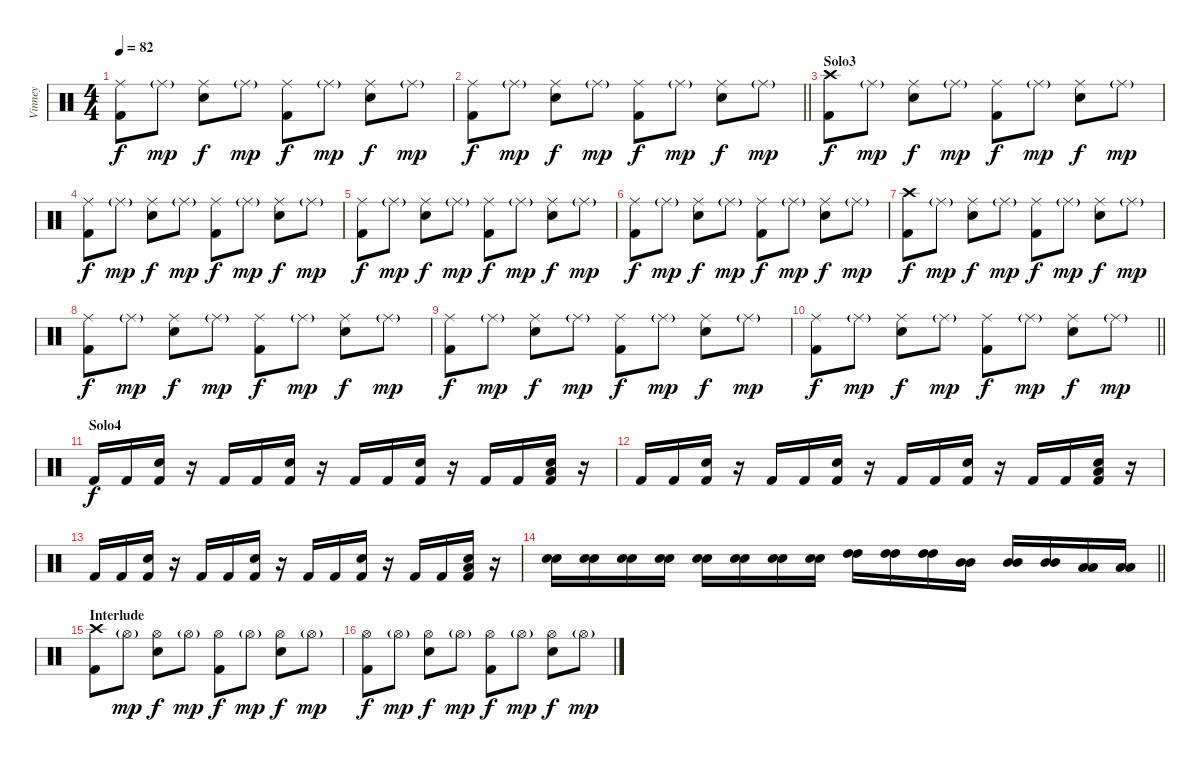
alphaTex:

\track ("Vinney" "Vinney") {instrument percussion}
\staff {score}
\articulation defaults
\ts (4 4)
\tempo 82
\clef neutral
\ks c
("Ride (middle)" "Kick (hit) 2").8{dy f} "Ride (middle)"{g}.8{dy mp} ("Ride (middle)" "Electric Snare (hit)").8{dy f} "Ride (middle)"{g}.8{dy mp} ("Ride (middle)" "Kick (hit) 2").8{dy f} "Ride (middle)"{g}.8{dy mp} ("Ride (middle)" "Electric Snare (hit)").8{dy f} "Ride (middle)"{g}.8{dy mp} |
\barLineRight lightlight
("Ride (middle)" "Kick (hit) 2").8{dy f} "Ride (middle)"{g}.8{dy mp} ("Ride (middle)" "Electric Snare (hit)").8{dy f} "Ride (middle)"{g}.8{dy mp} ("Ride (middle)" "Kick (hit) 2").8{dy f} "Ride (middle)"{g}.8{dy mp} ("Ride (middle)" "Electric Snare (hit)").8{dy f} "Ride (middle)"{g}.8{dy mp} |
\section ("" "Solo3")
("Crash high (hit)" "Kick (hit) 2").8{dy f} "Ride (middle)"{g}.8{dy mp} ("Ride (middle)" "Electric Snare (hit)").8{dy f} "Ride (middle)"{g}.8{dy mp} ("Ride (middle)" "Kick (hit) 2").8{dy f} "Ride (middle)"{g}.8{dy mp} ("Ride (middle)" "Electric Snare (hit)").8{dy f} "Ride (middle)"{g}.8{dy mp} |
("Ride (middle)" "Kick (hit) 2").8{dy f} "Ride (middle)"{g}.8{dy mp} ("Ride (middle)" "Electric Snare (hit)").8{dy f} "Ride (middle)"{g}.8{dy mp} ("Ride (middle)" "Kick (hit) 2").8{dy f} "Ride (middle)"{g}.8{dy mp} ("Ride (middle)" "Electric Snare (hit)").8{dy f} "Ride (middle)"{g}.8{dy mp} |
("Ride (middle)" "Kick (hit) 2").8{dy f} "Ride (middle)"{g}.8{dy mp} ("Ride (middle)" "Electric Snare (hit)").8{dy f} "Ride (middle)"{g}.8{dy mp} ("Ride (middle)" "Kick (hit) 2").8{dy f} "Ride (middle)"{g}.8{dy mp} ("Ride (middle)" "Electric Snare (hit)").8{dy f} "Ride (middle)"{g}.8{dy mp} |
("Ride (middle)" "Kick (hit) 2").8{dy f} "Ride (middle)"{g}.8{dy mp} ("Ride (middle)" "Electric Snare (hit)").8{dy f} "Ride (middle)"{g}.8{dy mp} ("Ride (middle)" "Kick (hit) 2").8{dy f} "Ride (middle)"{g}.8{dy mp} ("Ride (middle)" "Electric Snare (hit)").8{dy f} "Ride (middle)"{g}.8{dy mp} |
("Crash high (hit)" "Kick (hit) 2").8{dy f} "Ride (middle)"{g}.8{dy mp} ("Ride (middle)" "Electric Snare (hit)").8{dy f} "Ride (middle)"{g}.8{dy mp} ("Ride (middle)" "Kick (hit) 2").8{dy f} "Ride (middle)"{g}.8{dy mp} ("Ride (middle)" "Electric Snare (hit)").8{dy f} "Ride (middle)"{g}.8{dy mp} |
("Ride (middle)" "Kick (hit) 2").8{dy f} "Ride (middle)"{g}.8{dy mp} ("Ride (middle)" "Electric Snare (hit)").8{dy f} "Ride (middle)"{g}.8{dy mp} ("Ride (middle)" "Kick (hit) 2").8{dy f} "Ride (middle)"{g}.8{dy mp} ("Ride (middle)" "Electric Snare (hit)").8{dy f} "Ride (middle)"{g}.8{dy mp} |
("Ride (middle)" "Kick (hit) 2").8{dy f} "Ride (middle)"{g}.8{dy mp} ("Ride (middle)" "Electric Snare (hit)").8{dy f} "Ride (middle)"{g}.8{dy mp} ("Ride (middle)" "Kick (hit) 2").8{dy f} "Ride (middle)"{g}.8{dy mp} ("Ride (middle)" "Electric Snare (hit)").8{dy f} "Ride (middle)"{g}.8{dy mp} |
\barLineRight lightlight
("Ride (middle)" "Kick (hit) 2").8{dy f} "Ride (middle)"{g}.8{dy mp} ("Ride (middle)" "Electric Snare (hit)").8{dy f} "Ride (middle)"{g}.8{dy mp} ("Ride (middle)" "Kick (hit) 2").8{dy f} "Ride (middle)"{g}.8{dy mp} ("Ride (middle)" "Electric Snare (hit)").8{dy f} "Ride (middle)"{g}.8{dy mp} |
\section ("" "Solo4")
"Kick (hit) 2".16{dy f} "Kick (hit) 2".16 ("Electric Snare (hit)" "Kick (hit) 2").16 r.16 "Kick (hit) 2".16 "Kick (hit) 2".16 ("Electric Snare (hit)" "Kick (hit) 2").16 r.16 "Kick (hit) 2".16 "Kick (hit) 2".16 ("Electric Snare (hit)" "Kick (hit) 2").16 r.16 "Kick (hit) 2".16 "Kick (hit) 2".16 ("Low Tom (hit)" "Electric Snare (hit)" "Kick (hit) 2").16 r.16 |
"Kick (hit) 2".16 "Kick (hit) 2".16 ("Electric Snare (hit)" "Kick (hit) 2").16 r.16 "Kick (hit) 2".16 "Kick (hit) 2".16 ("Electric Snare (hit)" "Kick (hit) 2").16 r.16 "Kick (hit) 2".16 "Kick (hit) 2".16 ("Electric Snare (hit)" "Kick (hit) 2").16 r.16 "Kick (hit) 2".16 "Kick (hit) 2".16 ("Low Tom (hit)" "Electric Snare (hit)" "Kick (hit) 2").16 r.16 |
"Kick (hit) 2".16 "Kick (hit) 2".16 ("Electric Snare (hit)" "Kick (hit) 2").16 r.16 "Kick (hit) 2".16 "Kick (hit) 2".16 ("Electric Snare (hit)" "Kick (hit) 2").16 r.16 "Kick (hit) 2".16 "Kick (hit) 2".16 ("Electric Snare (hit)" "Kick (hit) 2").16 r.16 "Kick (hit) 2".16 "Kick (hit) 2".16 ("Low Tom (hit)" "Electric Snare (hit)" "Kick (hit) 2").16 r.16 |
\barLineRight lightlight
("Electric Snare (hit)" "Electric Snare (hit)").16 ("Electric Snare (hit)" "Electric Snare (hit)").16 ("Electric Snare (hit)" "Electric Snare (hit)").16 ("Electric Snare (hit)" "Electric Snare (hit)").16 ("Electric Snare (hit)" "Electric Snare (hit)").16 ("Electric Snare (hit)" "Electric Snare (hit)").16 ("Electric Snare (hit)" "Electric Snare (hit)").16 ("Electric Snare (hit)" "Electric Snare (hit)").16 ("High Tom (hit)" "High Tom (hit)").16 ("High Tom (hit)" "High Tom (hit)").16 ("High Tom (hit)" "High Tom (hit)").16 ("Mid Tom (hit)" "Mid Tom (hit)").16 ("Mid Tom (hit)" "Mid Tom (hit)").16 ("Mid Tom (hit)" "Mid Tom (hit)").16 ("Low Tom (hit)" "Low Tom (hit)").16 ("Low Tom (hit)" "Low Tom (hit)").16 |
\section ("" "Interlude")
("Crash high (hit)" "Kick (hit) 2").8 "Hi-Hat (open)"{g}.8{dy mp} ("Hi-Hat (open)" "Electric Snare (hit)").8{dy f} "Hi-Hat (open)"{g}.8{dy mp} ("Hi-Hat (open)" "Kick (hit) 2").8{dy f} "Hi-Hat (open)"{g}.8{dy mp} ("Hi-Hat (open)" "Electric Snare (hit)").8{dy f} "Hi-Hat (open)"{g}.8{dy mp} |
("Hi-Hat (open)" "Kick (hit) 2").8{dy f} "Hi-Hat (open)"{g}.8{dy mp} ("Hi-Hat (open)" "Electric Snare (hit)").8{dy f} "Hi-Hat (open)"{g}.8{dy mp} ("Hi-Hat (open)" "Kick (hit) 2").8{dy f} "Hi-Hat (open)"{g}.8{dy mp} ("Hi-Hat (open)" "Electric Snare (hit)").8{dy f} "Hi-Hat (open)"{g}.8{dy mp}
